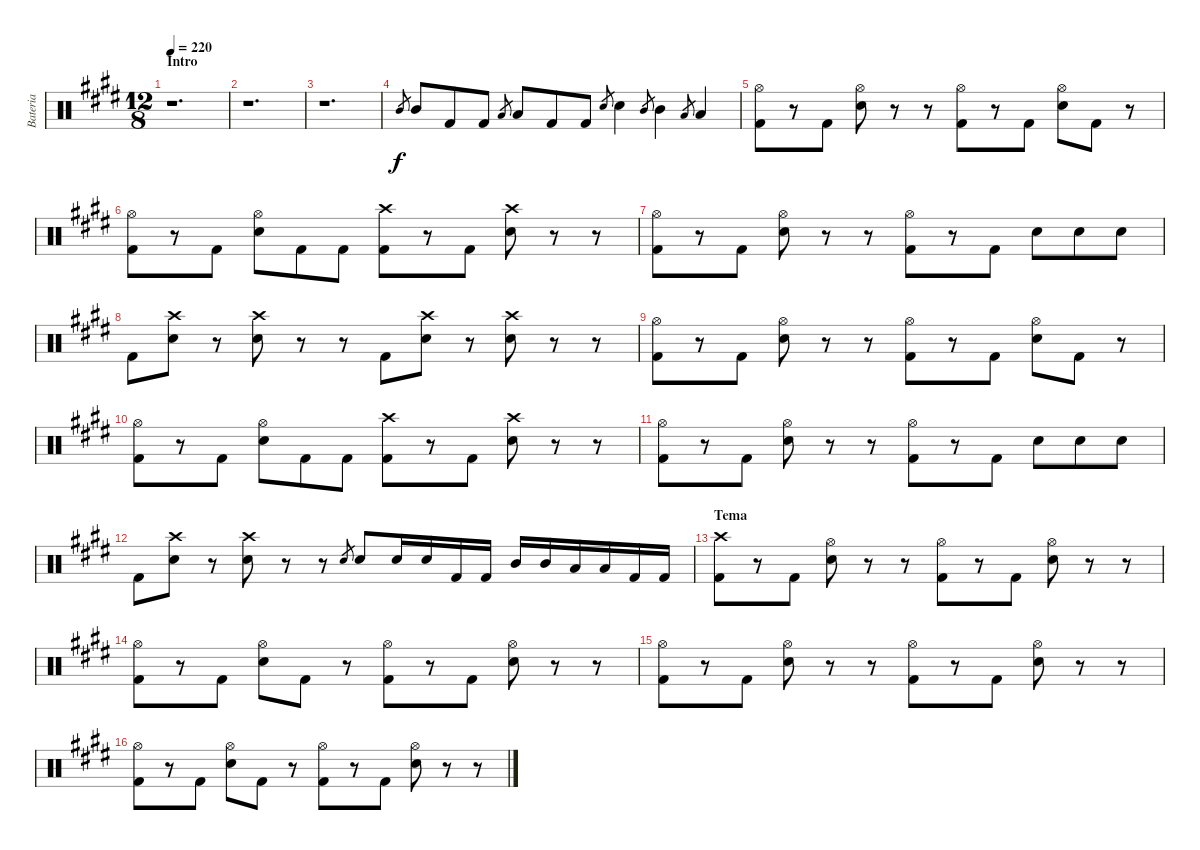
\track ("Bateria" "Bateria") {instrument percussion}
\staff {score}
\articulation defaults
\ts (12 8)
\section ("" "Intro")
\tempo 220
\clef neutral
\ks e
r.1{d dy f} |
r.1{d} |
r.1{d} |
"Mid Tom (hit)".8{gr} "Mid Tom (hit)".8 "Kick (hit) 2".8 "Kick (hit) 2".8 "Low Tom (hit)".8{gr} "Low Tom (hit)".8 "Kick (hit) 2".8 "Kick (hit) 2".8 "Electric Snare (hit)".8{gr} "Electric Snare (hit)".4 "Mid Tom (hit)".8{gr} "Mid Tom (hit)".4 "Low Tom (hit)".8{gr} "Low Tom (hit)".4 |
("Hi-Hat (open)" "Kick (hit) 2").8 r.8 "Kick (hit) 2".8 ("Hi-Hat (open)" "Electric Snare (hit)").8 r.8 r.8 ("Hi-Hat (open)" "Kick (hit) 2").8 r.8 "Kick (hit) 2".8 ("Hi-Hat (open)" "Electric Snare (hit)").8 "Kick (hit) 2".8 r.8 |
("Hi-Hat (open)" "Kick (hit) 2").8 r.8 "Kick (hit) 2".8 ("Hi-Hat (open)" "Electric Snare (hit)").8 "Kick (hit) 2".8 "Kick (hit) 2".8 ("Crash high (hit)" "Kick (hit) 2").8 r.8 "Kick (hit) 2".8 ("Crash high (hit)" "Electric Snare (hit)").8 r.8 r.8 |
("Hi-Hat (open)" "Kick (hit) 2").8 r.8 "Kick (hit) 2".8 ("Hi-Hat (open)" "Electric Snare (hit)").8 r.8 r.8 ("Hi-Hat (open)" "Kick (hit) 2").8 r.8 "Kick (hit) 2".8 "Electric Snare (hit)".8 "Electric Snare (hit)".8 "Electric Snare (hit)".8 |
"Kick (hit) 2".8 ("Crash high (hit)" "Electric Snare (hit)").8 r.8 ("Crash high (hit)" "Electric Snare (hit)").8 r.8 r.8 "Kick (hit) 2".8 ("Crash high (hit)" "Electric Snare (hit)").8 r.8 ("Crash high (hit)" "Electric Snare (hit)").8 r.8 r.8 |
("Hi-Hat (open)" "Kick (hit) 2").8 r.8 "Kick (hit) 2".8 ("Hi-Hat (open)" "Electric Snare (hit)").8 r.8 r.8 ("Hi-Hat (open)" "Kick (hit) 2").8 r.8 "Kick (hit) 2".8 ("Hi-Hat (open)" "Electric Snare (hit)").8 "Kick (hit) 2".8 r.8 |
("Hi-Hat (open)" "Kick (hit) 2").8 r.8 "Kick (hit) 2".8 ("Hi-Hat (open)" "Electric Snare (hit)").8 "Kick (hit) 2".8 "Kick (hit) 2".8 ("Crash high (hit)" "Kick (hit) 2").8 r.8 "Kick (hit) 2".8 ("Crash high (hit)" "Electric Snare (hit)").8 r.8 r.8 |
("Hi-Hat (open)" "Kick (hit) 2").8 r.8 "Kick (hit) 2".8 ("Hi-Hat (open)" "Electric Snare (hit)").8 r.8 r.8 ("Hi-Hat (open)" "Kick (hit) 2").8 r.8 "Kick (hit) 2".8 "Electric Snare (hit)".8 "Electric Snare (hit)".8 "Electric Snare (hit)".8 |
"Kick (hit) 2".8 ("Crash high (hit)" "Electric Snare (hit)").8 r.8 ("Crash high (hit)" "Electric Snare (hit)").8 r.8 r.8 "Electric Snare (hit)".8{gr} "Electric Snare (hit)".8 "Electric Snare (hit)".16 "Electric Snare (hit)".16 "Kick (hit) 2".16 "Kick (hit) 2".16 "Mid Tom (hit)".16 "Mid Tom (hit)".16 "Low Tom (hit)".16 "Low Tom (hit)".16 "Kick (hit) 2".16 "Kick (hit) 2".16 |
\section ("" "Tema")
("Crash high (hit)" "Kick (hit) 2").8 r.8 "Kick (hit) 2".8 ("Hi-Hat (open)" "Electric Snare (hit)").8 r.8 r.8 ("Hi-Hat (open)" "Kick (hit) 2").8 r.8 "Kick (hit) 2".8 ("Hi-Hat (open)" "Electric Snare (hit)").8 r.8 r.8 |
("Hi-Hat (open)" "Kick (hit) 2").8 r.8 "Kick (hit) 2".8 ("Hi-Hat (open)" "Electric Snare (hit)").8 "Kick (hit) 2".8 r.8 ("Hi-Hat (open)" "Kick (hit) 2").8 r.8 "Kick (hit) 2".8 ("Hi-Hat (open)" "Electric Snare (hit)").8 r.8 r.8 |
("Hi-Hat (open)" "Kick (hit) 2").8 r.8 "Kick (hit) 2".8 ("Hi-Hat (open)" "Electric Snare (hit)").8 r.8 r.8 ("Hi-Hat (open)" "Kick (hit) 2").8 r.8 "Kick (hit) 2".8 ("Hi-Hat (open)" "Electric Snare (hit)").8 r.8 r.8 |
("Hi-Hat (open)" "Kick (hit) 2").8 r.8 "Kick (hit) 2".8 ("Hi-Hat (open)" "Electric Snare (hit)").8 "Kick (hit) 2".8 r.8 ("Hi-Hat (open)" "Kick (hit) 2").8 r.8 "Kick (hit) 2".8 ("Hi-Hat (open)" "Electric Snare (hit)").8 r.8 r.8
